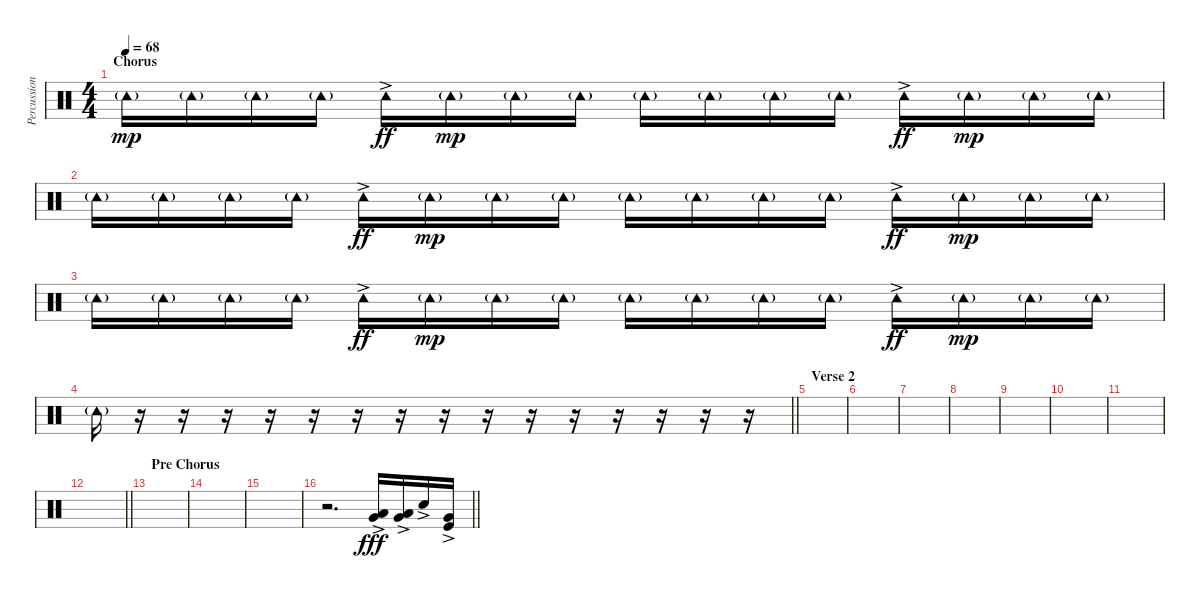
\track ("Percussion" "Percussion") {instrument percussion}
\staff {score}
\articulation defaults
\ts (4 4)
\section ("" "Chorus")
\tempo 68
\clef neutral
\ks c "Tambourine (hit)"{g}.16{dy mp} "Tambourine (hit)"{g}.16 "Tambourine (hit)"{g}.16 "Tambourine (hit)"{g}.16 "Tambourine (hit)"{ac}.16{dy ff} "Tambourine (hit)"{g}.16{dy mp} "Tambourine (hit)"{g}.16 "Tambourine (hit)"{g}.16 "Tambourine (hit)"{g}.16 "Tambourine (hit)"{g}.16 "Tambourine (hit)"{g}.16 "Tambourine (hit)"{g}.16 "Tambourine (hit)"{ac}.16{dy ff} "Tambourine (hit)"{g}.16{dy mp} "Tambourine (hit)"{g}.16 "Tambourine (hit)"{g}.16
|
"Tambourine (hit)"{g}.16 "Tambourine (hit)"{g}.16 "Tambourine (hit)"{g}.16 "Tambourine (hit)"{g}.16 "Tambourine (hit)"{ac}.16{dy ff} "Tambourine (hit)"{g}.16{dy mp} "Tambourine (hit)"{g}.16 "Tambourine (hit)"{g}.16 "Tambourine (hit)"{g}.16 "Tambourine (hit)"{g}.16 "Tambourine (hit)"{g}.16 "Tambourine (hit)"{g}.16 "Tambourine (hit)"{ac}.16{dy ff} "Tambourine (hit)"{g}.16{dy mp} "Tambourine (hit)"{g}.16 "Tambourine (hit)"{g}.16 |
"Tambourine (hit)"{g}.16 "Tambourine (hit)"{g}.16 "Tambourine (hit)"{g}.16 "Tambourine (hit)"{g}.16 "Tambourine (hit)"{ac}.16{dy ff} "Tambourine (hit)"{g}.16{dy mp} "Tambourine (hit)"{g}.16 "Tambourine (hit)"{g}.16 "Tambourine (hit)"{g}.16 "Tambourine (hit)"{g}.16 "Tambourine (hit)"{g}.16 "Tambourine (hit)"{g}.16 "Tambourine (hit)"{ac}.16{dy ff} "Tambourine (hit)"{g}.16{dy mp} "Tambourine (hit)"{g}.16 "Tambourine (hit)"{g}.16 |
\barLineRight lightlight "Tambourine (hit)"{g}.16
r.16 r.16 r.16 r.16 r.16 r.16 r.16 r.16 r.16 r.16 r.16 r.16 r.16 r.16 r.16 |
\section ("" "Verse 2")
|
|
|
|
|
|
|
\barLineRight lightlight
|
\section ("" "Pre Chorus")
|
|
|
\barLineRight lightlight
r.2{d} ("Very Low Tom (hit)" "Low Tom (hit)"{ac}).16{dy fff} ("Very Low Tom (hit)" "Low Tom (hit)"{ac}).16 "Snare (hit) 2"{ac}.16 ("Very Low Tom (hit)" "Kick (hit)"{ac}).16
